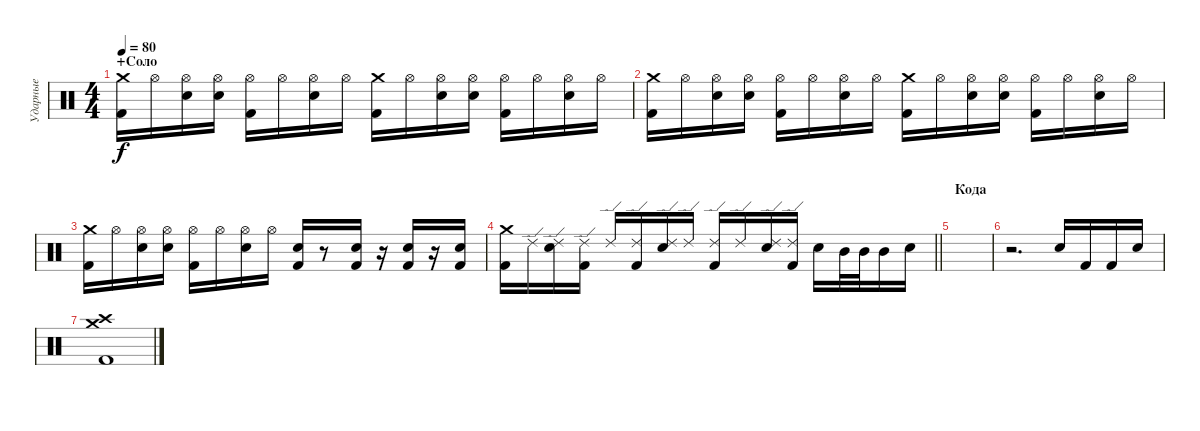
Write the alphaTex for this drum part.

\track ("Ударные" "Ударные") {instrument percussion}
\staff {score}
\articulation defaults
\ts (4 4)
\section ("" "+Соло")
\tempo 80
\clef neutral
\ks c
("Crash medium (hit)" "Kick (hit) 2").16{dy f} "Hi-Hat (open)".16 ("Hi-Hat (open)" "Electric Snare (hit)").16 ("Hi-Hat (open)" "Electric Snare (hit)").16 ("Hi-Hat (open)" "Kick (hit) 2").16 "Hi-Hat (open)".16 ("Hi-Hat (open)" "Electric Snare (hit)").16 "Hi-Hat (open)".16 ("Crash medium (hit)" "Kick (hit) 2").16 "Hi-Hat (open)".16 ("Hi-Hat (open)" "Electric Snare (hit)").16 ("Hi-Hat (open)" "Electric Snare (hit)").16 ("Hi-Hat (open)" "Kick (hit) 2").16 "Hi-Hat (open)".16 ("Hi-Hat (open)" "Electric Snare (hit)").16 "Hi-Hat (open)".16 |
("Crash medium (hit)" "Kick (hit) 2").16 "Hi-Hat (open)".16 ("Hi-Hat (open)" "Electric Snare (hit)").16 ("Hi-Hat (open)" "Electric Snare (hit)").16 ("Hi-Hat (open)" "Kick (hit) 2").16 "Hi-Hat (open)".16 ("Hi-Hat (open)" "Electric Snare (hit)").16 "Hi-Hat (open)".16 ("Crash medium (hit)" "Kick (hit) 2").16 "Hi-Hat (open)".16 ("Hi-Hat (open)" "Electric Snare (hit)").16 ("Hi-Hat (open)" "Electric Snare (hit)").16 ("Hi-Hat (open)" "Kick (hit) 2").16 "Hi-Hat (open)".16 ("Hi-Hat (open)" "Electric Snare (hit)").16 "Hi-Hat (open)".16 |
("Crash medium (hit)" "Kick (hit) 2").16 "Hi-Hat (open)".16 ("Hi-Hat (open)" "Electric Snare (hit)").16 ("Hi-Hat (open)" "Electric Snare (hit)").16 ("Hi-Hat (open)" "Kick (hit) 2").16 "Hi-Hat (open)".16 ("Hi-Hat (open)" "Electric Snare (hit)").16 "Hi-Hat (open)".16 ("Electric Snare (hit)" "Kick (hit) 2").16 r.8 ("Electric Snare (hit)" "Kick (hit) 2").16 r.16 ("Electric Snare (hit)" "Kick (hit) 2").16 r.16 ("Electric Snare (hit)" "Kick (hit) 2").16 |
\barLineRight lightlight
("Crash medium (hit)" "Kick (hit) 2").16 "Ride (edge) 2".16 ("Ride (edge) 2" "Electric Snare (hit)").16 ("Ride (edge) 2" "Kick (hit) 2").16 "Ride (edge) 2".16 ("Ride (edge) 2" "Kick (hit) 2").16 ("Ride (edge) 2" "Electric Snare (hit)").16 "Ride (edge) 2".16 ("Ride (edge) 2" "Kick (hit) 2").16 "Ride (edge) 2".16 ("Ride (edge) 2" "Electric Snare (hit)").16 ("Ride (edge) 2" "Kick (hit) 2").16 "Electric Snare (hit)".16 "Mid Tom (hit)".32 "Mid Tom (hit)".32 "Mid Tom (hit)".16 "Electric Snare (hit)".16 |
\section ("" "Кода")
|
r.2{d} "Electric Snare (hit)".16 "Kick (hit) 2".16 "Kick (hit) 2".16 "Electric Snare (hit)".16 |
("Crash medium (hit)" "Crash high (hit)" "Kick (hit) 2").1
